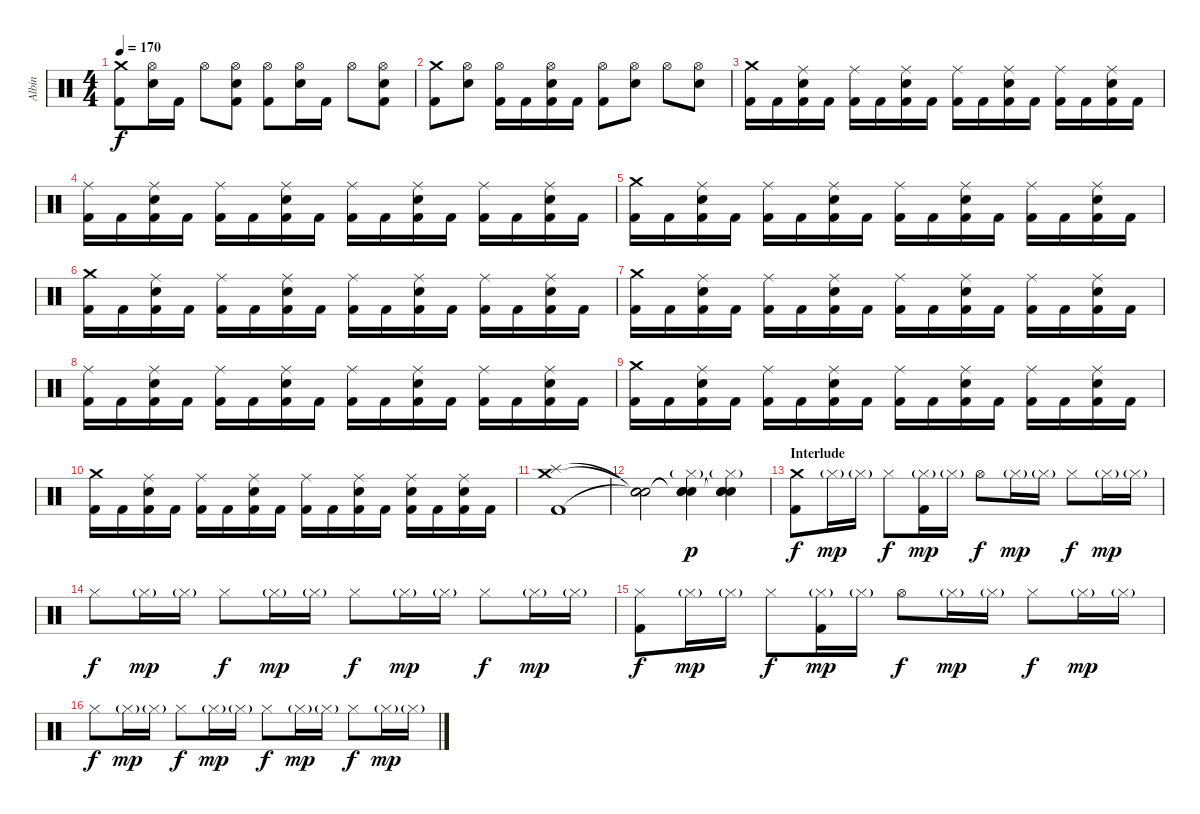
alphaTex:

\track ("Albin" "Albin") {instrument percussion}
\staff {score}
\articulation defaults
\ts (4 4)
\tempo 170
\clef neutral
\ks c
("Crash medium (hit)" "Kick (hit) 2").8{dy f} ("Hi-Hat (open)" "Electric Snare (hit)").16 "Kick (hit) 2".16 "Hi-Hat (open)".8 ("Hi-Hat (open)" "Electric Snare (hit)" "Kick (hit) 2").8 ("Hi-Hat (open)" "Kick (hit) 2").8 ("Hi-Hat (open)" "Electric Snare (hit)").16 "Kick (hit) 2".16 "Hi-Hat (open)".8 ("Hi-Hat (open)" "Electric Snare (hit)" "Kick (hit) 2").8 |
("Crash medium (hit)" "Kick (hit) 2").8 ("Hi-Hat (open)" "Electric Snare (hit)").8 ("Hi-Hat (open)" "Kick (hit) 2").16 "Kick (hit) 2".16 ("Hi-Hat (open)" "Electric Snare (hit)" "Kick (hit) 2").16 "Kick (hit) 2".16 ("Hi-Hat (open)" "Kick (hit) 2").8 ("Hi-Hat (open)" "Electric Snare (hit)").8 "Hi-Hat (open)".8 ("Hi-Hat (open)" "Electric Snare (hit)").8 |
("Crash medium (hit)" "Kick (hit) 2").16 "Kick (hit) 2".16 ("Ride (middle)" "Electric Snare (hit)" "Kick (hit) 2").16 "Kick (hit) 2".16 ("Ride (middle)" "Kick (hit) 2").16 "Kick (hit) 2".16 ("Ride (middle)" "Electric Snare (hit)" "Kick (hit) 2").16 "Kick (hit) 2".16 ("Ride (middle)" "Kick (hit) 2").16 "Kick (hit) 2".16 ("Ride (middle)" "Electric Snare (hit)" "Kick (hit) 2").16 "Kick (hit) 2".16 ("Ride (middle)" "Kick (hit) 2").16 "Kick (hit) 2".16 ("Ride (middle)" "Electric Snare (hit)" "Kick (hit) 2").16 "Kick (hit) 2".16 |
("Ride (middle)" "Kick (hit) 2").16 "Kick (hit) 2".16 ("Ride (middle)" "Electric Snare (hit)" "Kick (hit) 2").16 "Kick (hit) 2".16 ("Ride (middle)" "Kick (hit) 2").16 "Kick (hit) 2".16 ("Ride (middle)" "Electric Snare (hit)" "Kick (hit) 2").16 "Kick (hit) 2".16 ("Ride (middle)" "Kick (hit) 2").16 "Kick (hit) 2".16 ("Ride (middle)" "Electric Snare (hit)" "Kick (hit) 2").16 "Kick (hit) 2".16 ("Ride (middle)" "Kick (hit) 2").16 "Kick (hit) 2".16 ("Ride (middle)" "Electric Snare (hit)" "Kick (hit) 2").16 "Kick (hit) 2".16 |
("Crash medium (hit)" "Kick (hit) 2").16 "Kick (hit) 2".16 ("Ride (middle)" "Electric Snare (hit)" "Kick (hit) 2").16 "Kick (hit) 2".16 ("Ride (middle)" "Kick (hit) 2").16 "Kick (hit) 2".16 ("Ride (middle)" "Electric Snare (hit)" "Kick (hit) 2").16 "Kick (hit) 2".16 ("Ride (middle)" "Kick (hit) 2").16 "Kick (hit) 2".16 ("Ride (middle)" "Electric Snare (hit)" "Kick (hit) 2").16 "Kick (hit) 2".16 ("Ride (middle)" "Kick (hit) 2").16 "Kick (hit) 2".16 ("Ride (middle)" "Electric Snare (hit)" "Kick (hit) 2").16 "Kick (hit) 2".16 |
("Crash medium (hit)" "Kick (hit) 2").16 "Kick (hit) 2".16 ("Ride (middle)" "Electric Snare (hit)" "Kick (hit) 2").16 "Kick (hit) 2".16 ("Ride (middle)" "Kick (hit) 2").16 "Kick (hit) 2".16 ("Ride (middle)" "Electric Snare (hit)" "Kick (hit) 2").16 "Kick (hit) 2".16 ("Ride (middle)" "Kick (hit) 2").16 "Kick (hit) 2".16 ("Ride (middle)" "Electric Snare (hit)" "Kick (hit) 2").16 "Kick (hit) 2".16 ("Ride (middle)" "Kick (hit) 2").16 "Kick (hit) 2".16 ("Ride (middle)" "Electric Snare (hit)" "Kick (hit) 2").16 "Kick (hit) 2".16 |
("Crash medium (hit)" "Kick (hit) 2").16 "Kick (hit) 2".16 ("Ride (middle)" "Electric Snare (hit)" "Kick (hit) 2").16 "Kick (hit) 2".16 ("Ride (middle)" "Kick (hit) 2").16 "Kick (hit) 2".16 ("Ride (middle)" "Electric Snare (hit)" "Kick (hit) 2").16 "Kick (hit) 2".16 ("Ride (middle)" "Kick (hit) 2").16 "Kick (hit) 2".16 ("Ride (middle)" "Electric Snare (hit)" "Kick (hit) 2").16 "Kick (hit) 2".16 ("Ride (middle)" "Kick (hit) 2").16 "Kick (hit) 2".16 ("Ride (middle)" "Electric Snare (hit)" "Kick (hit) 2").16 "Kick (hit) 2".16 |
("Ride (middle)" "Kick (hit) 2").16 "Kick (hit) 2".16 ("Ride (middle)" "Electric Snare (hit)" "Kick (hit) 2").16 "Kick (hit) 2".16 ("Ride (middle)" "Kick (hit) 2").16 "Kick (hit) 2".16 ("Ride (middle)" "Electric Snare (hit)" "Kick (hit) 2").16 "Kick (hit) 2".16 ("Ride (middle)" "Kick (hit) 2").16 "Kick (hit) 2".16 ("Ride (middle)" "Electric Snare (hit)" "Kick (hit) 2").16 "Kick (hit) 2".16 ("Ride (middle)" "Kick (hit) 2").16 "Kick (hit) 2".16 ("Ride (middle)" "Electric Snare (hit)" "Kick (hit) 2").16 "Kick (hit) 2".16 |
("Crash medium (hit)" "Kick (hit) 2").16 "Kick (hit) 2".16 ("Ride (middle)" "Electric Snare (hit)" "Kick (hit) 2").16 "Kick (hit) 2".16 ("Ride (middle)" "Kick (hit) 2").16 "Kick (hit) 2".16 ("Ride (middle)" "Electric Snare (hit)" "Kick (hit) 2").16 "Kick (hit) 2".16 ("Ride (middle)" "Kick (hit) 2").16 "Kick (hit) 2".16 ("Ride (middle)" "Electric Snare (hit)" "Kick (hit) 2").16 "Kick (hit) 2".16 ("Ride (middle)" "Kick (hit) 2").16 "Kick (hit) 2".16 ("Ride (middle)" "Electric Snare (hit)" "Kick (hit) 2").16 "Kick (hit) 2".16 |
("Crash medium (hit)" "Kick (hit) 2").16 "Kick (hit) 2".16 ("Ride (middle)" "Electric Snare (hit)" "Kick (hit) 2").16 "Kick (hit) 2".16 ("Ride (middle)" "Kick (hit) 2").16 "Kick (hit) 2".16 ("Ride (middle)" "Electric Snare (hit)" "Kick (hit) 2").16 "Kick (hit) 2".16 ("Ride (middle)" "Kick (hit) 2").16 "Kick (hit) 2".16 ("Ride (middle)" "Electric Snare (hit)" "Kick (hit) 2").16 "Kick (hit) 2".16 ("Ride (middle)" "Electric Snare (hit)" "Kick (hit) 2").16 "Kick (hit) 2".16 ("Ride (middle)" "Electric Snare (hit)" "Kick (hit) 2").16 "Kick (hit) 2".16 |
("Crash medium (hit)" "Splash (hit)" "Kick (hit) 2").1 |
("Snare (hit)"{t} "Snare (hit)"{t} "Snare (hit)"{t}).2 ("Snare (hit)"{t} "Snare (hit)"{t} "Hi-Hat (closed)"{g} "Snare (hit)").4{dy p} ("Snare (hit)"{t} "Snare (hit)"{t} "Hi-Hat (closed)"{g} "Snare (hit)"{t}).4 |
\section ("" "Interlude")
("Crash medium (hit)" "Kick (hit) 2").8{dy f} "Hi-Hat (closed)"{g}.16{dy mp} "Hi-Hat (closed)"{g}.16 "Hi-Hat (closed)".8{dy f} ("Hi-Hat (closed)"{g} "Kick (hit) 2").16{dy mp} "Hi-Hat (closed)"{g}.16 "Hi-Hat (open)".8{dy f} "Hi-Hat (closed)"{g}.16{dy mp} "Hi-Hat (closed)"{g}.16 "Hi-Hat (closed)".8{dy f} "Hi-Hat (closed)"{g}.16{dy mp} "Hi-Hat (closed)"{g}.16 |
"Hi-Hat (closed)".8{dy f} "Hi-Hat (closed)"{g}.16{dy mp} "Hi-Hat (closed)"{g}.16 "Hi-Hat (closed)".8{dy f} "Hi-Hat (closed)"{g}.16{dy mp} "Hi-Hat (closed)"{g}.16 "Hi-Hat (closed)".8{dy f} "Hi-Hat (closed)"{g}.16{dy mp} "Hi-Hat (closed)"{g}.16 "Hi-Hat (closed)".8{dy f} "Hi-Hat (closed)"{g}.16{dy mp} "Hi-Hat (closed)"{g}.16 |
("Hi-Hat (closed)" "Kick (hit) 2").8{dy f} "Hi-Hat (closed)"{g}.16{dy mp} "Hi-Hat (closed)"{g}.16 "Hi-Hat (closed)".8{dy f} ("Hi-Hat (closed)"{g} "Kick (hit) 2").16{dy mp} "Hi-Hat (closed)"{g}.16 "Hi-Hat (open)".8{dy f} "Hi-Hat (closed)"{g}.16{dy mp} "Hi-Hat (closed)"{g}.16 "Hi-Hat (closed)".8{dy f} "Hi-Hat (closed)"{g}.16{dy mp} "Hi-Hat (closed)"{g}.16 |
"Hi-Hat (closed)".8{dy f} "Hi-Hat (closed)"{g}.16{dy mp} "Hi-Hat (closed)"{g}.16 "Hi-Hat (closed)".8{dy f} "Hi-Hat (closed)"{g}.16{dy mp} "Hi-Hat (closed)"{g}.16 "Hi-Hat (closed)".8{dy f} "Hi-Hat (closed)"{g}.16{dy mp} "Hi-Hat (closed)"{g}.16 "Hi-Hat (closed)".8{dy f} "Hi-Hat (closed)"{g}.16{dy mp} "Hi-Hat (closed)"{g}.16
